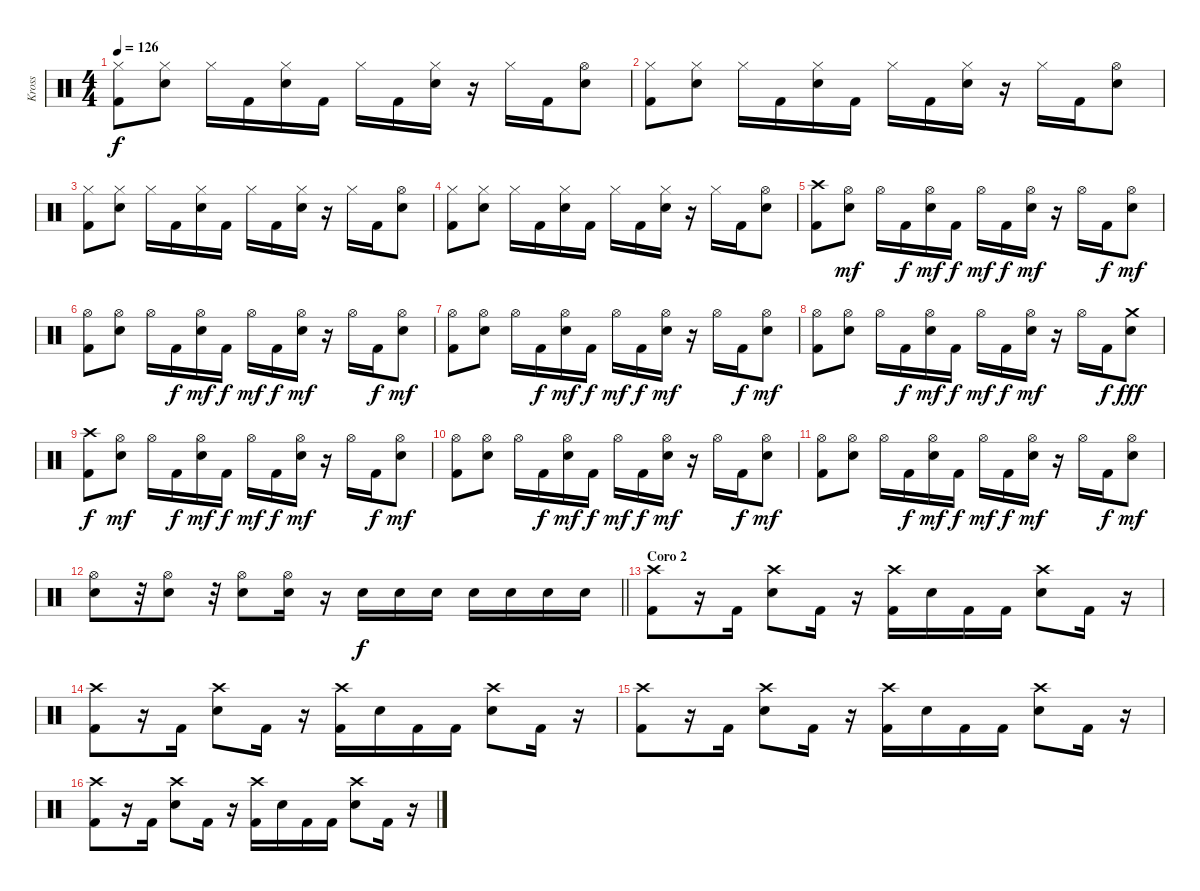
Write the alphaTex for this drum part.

\track ("Kross" "Kross") {instrument percussion}
\staff {score}
\articulation defaults
\ts (4 4)
\tempo 126
\clef neutral
\ks c
("Hi-Hat (closed)" "Kick (hit) 2").8{dy f} ("Hi-Hat (closed)" "Electric Snare (hit)").8 "Hi-Hat (closed)".16 "Kick (hit) 2".16 ("Hi-Hat (closed)" "Electric Snare (hit)").16 "Kick (hit) 2".16 "Hi-Hat (closed)".16 "Kick (hit) 2".16 ("Hi-Hat (closed)" "Electric Snare (hit)").16 r.16 "Hi-Hat (closed)".16 "Kick (hit) 2".16 ("Hi-Hat (open)" "Electric Snare (hit)").8 |
("Hi-Hat (closed)" "Kick (hit) 2").8 ("Hi-Hat (closed)" "Electric Snare (hit)").8 "Hi-Hat (closed)".16 "Kick (hit) 2".16 ("Hi-Hat (closed)" "Electric Snare (hit)").16 "Kick (hit) 2".16 "Hi-Hat (closed)".16 "Kick (hit) 2".16 ("Hi-Hat (closed)" "Electric Snare (hit)").16 r.16 "Hi-Hat (closed)".16 "Kick (hit) 2".16 ("Hi-Hat (open)" "Electric Snare (hit)").8 |
("Hi-Hat (closed)" "Kick (hit) 2").8 ("Hi-Hat (closed)" "Electric Snare (hit)").8 "Hi-Hat (closed)".16 "Kick (hit) 2".16 ("Hi-Hat (closed)" "Electric Snare (hit)").16 "Kick (hit) 2".16 "Hi-Hat (closed)".16 "Kick (hit) 2".16 ("Hi-Hat (closed)" "Electric Snare (hit)").16 r.16 "Hi-Hat (closed)".16 "Kick (hit) 2".16 ("Hi-Hat (open)" "Electric Snare (hit)").8 |
("Hi-Hat (closed)" "Kick (hit) 2").8 ("Hi-Hat (closed)" "Electric Snare (hit)").8 "Hi-Hat (closed)".16 "Kick (hit) 2".16 ("Hi-Hat (closed)" "Electric Snare (hit)").16 "Kick (hit) 2".16 "Hi-Hat (closed)".16 "Kick (hit) 2".16 ("Hi-Hat (closed)" "Electric Snare (hit)").16 r.16 "Hi-Hat (closed)".16 "Kick (hit) 2".16 ("Hi-Hat (open)" "Electric Snare (hit)").8 |
("Crash high (hit)" "Kick (hit) 2").8 ("Hi-Hat (open)" "Electric Snare (hit)").8{dy mf} "Hi-Hat (open)".16 "Kick (hit) 2".16{dy f} ("Hi-Hat (open)" "Electric Snare (hit)").16{dy mf} "Kick (hit) 2".16{dy f} "Hi-Hat (open)".16{dy mf} "Kick (hit) 2".16{dy f} ("Hi-Hat (open)" "Electric Snare (hit)").16{dy mf} r.16 "Hi-Hat (open)".16 "Kick (hit) 2".16{dy f} ("Hi-Hat (open)" "Electric Snare (hit)").8{dy mf} |
("Hi-Hat (open)" "Kick (hit) 2").8 ("Hi-Hat (open)" "Electric Snare (hit)").8 "Hi-Hat (open)".16 "Kick (hit) 2".16{dy f} ("Hi-Hat (open)" "Electric Snare (hit)").16{dy mf} "Kick (hit) 2".16{dy f} "Hi-Hat (open)".16{dy mf} "Kick (hit) 2".16{dy f} ("Hi-Hat (open)" "Electric Snare (hit)").16{dy mf} r.16 "Hi-Hat (open)".16 "Kick (hit) 2".16{dy f} ("Hi-Hat (open)" "Electric Snare (hit)").8{dy mf} |
("Hi-Hat (open)" "Kick (hit) 2").8 ("Hi-Hat (open)" "Electric Snare (hit)").8 "Hi-Hat (open)".16 "Kick (hit) 2".16{dy f} ("Hi-Hat (open)" "Electric Snare (hit)").16{dy mf} "Kick (hit) 2".16{dy f} "Hi-Hat (open)".16{dy mf} "Kick (hit) 2".16{dy f} ("Hi-Hat (open)" "Electric Snare (hit)").16{dy mf} r.16 "Hi-Hat (open)".16 "Kick (hit) 2".16{dy f} ("Hi-Hat (open)" "Electric Snare (hit)").8{dy mf} |
("Hi-Hat (open)" "Kick (hit) 2").8 ("Hi-Hat (open)" "Electric Snare (hit)").8 "Hi-Hat (open)".16 "Kick (hit) 2".16{dy f} ("Hi-Hat (open)" "Electric Snare (hit)").16{dy mf} "Kick (hit) 2".16{dy f} "Hi-Hat (open)".16{dy mf} "Kick (hit) 2".16{dy f} ("Hi-Hat (open)" "Electric Snare (hit)").16{dy mf} r.16 "Hi-Hat (open)".16 "Kick (hit) 2".16{dy f} ("Crash medium (hit)" "Electric Snare (hit)").8{dy fff} |
("Crash high (hit)" "Kick (hit) 2").8{dy f} ("Hi-Hat (open)" "Electric Snare (hit)").8{dy mf} "Hi-Hat (open)".16 "Kick (hit) 2".16{dy f} ("Hi-Hat (open)" "Electric Snare (hit)").16{dy mf} "Kick (hit) 2".16{dy f} "Hi-Hat (open)".16{dy mf} "Kick (hit) 2".16{dy f} ("Hi-Hat (open)" "Electric Snare (hit)").16{dy mf} r.16 "Hi-Hat (open)".16 "Kick (hit) 2".16{dy f} ("Hi-Hat (open)" "Electric Snare (hit)").8{dy mf} |
("Hi-Hat (open)" "Kick (hit) 2").8 ("Hi-Hat (open)" "Electric Snare (hit)").8 "Hi-Hat (open)".16 "Kick (hit) 2".16{dy f} ("Hi-Hat (open)" "Electric Snare (hit)").16{dy mf} "Kick (hit) 2".16{dy f} "Hi-Hat (open)".16{dy mf} "Kick (hit) 2".16{dy f} ("Hi-Hat (open)" "Electric Snare (hit)").16{dy mf} r.16 "Hi-Hat (open)".16 "Kick (hit) 2".16{dy f} ("Hi-Hat (open)" "Electric Snare (hit)").8{dy mf} |
("Hi-Hat (open)" "Kick (hit) 2").8 ("Hi-Hat (open)" "Electric Snare (hit)").8 "Hi-Hat (open)".16 "Kick (hit) 2".16{dy f} ("Hi-Hat (open)" "Electric Snare (hit)").16{dy mf} "Kick (hit) 2".16{dy f} "Hi-Hat (open)".16{dy mf} "Kick (hit) 2".16{dy f} ("Hi-Hat (open)" "Electric Snare (hit)").16{dy mf} r.16 "Hi-Hat (open)".16 "Kick (hit) 2".16{dy f} ("Hi-Hat (open)" "Electric Snare (hit)").8{dy mf} |
\barLineRight lightlight
("Hi-Hat (open)" "Electric Snare (hit)").8 r.32 ("Hi-Hat (open)" "Electric Snare (hit)").8 r.32 ("Hi-Hat (open)" "Electric Snare (hit)").8 ("Hi-Hat (open)" "Electric Snare (hit)").16 r.16 "Electric Snare (hit)".16{dy f} "Electric Snare (hit)".16 "Electric Snare (hit)".16 "Electric Snare (hit)".16 "Electric Snare (hit)".16 "Electric Snare (hit)".16 "Electric Snare (hit)".16 |
\section ("" "Coro 2")
("Crash high (hit)" "Kick (hit) 2").8 r.16 "Kick (hit) 2".16 ("Crash high (hit)" "Electric Snare (hit)").8 "Kick (hit) 2".16 r.16 ("Crash high (hit)" "Kick (hit) 2").16 "Electric Snare (hit)".16 "Kick (hit) 2".16 "Kick (hit) 2".16 ("Crash high (hit)" "Electric Snare (hit)").8 "Kick (hit) 2".16 r.16 |
("Crash high (hit)" "Kick (hit) 2").8 r.16 "Kick (hit) 2".16 ("Crash high (hit)" "Electric Snare (hit)").8 "Kick (hit) 2".16 r.16 ("Crash high (hit)" "Kick (hit) 2").16 "Electric Snare (hit)".16 "Kick (hit) 2".16 "Kick (hit) 2".16 ("Crash high (hit)" "Electric Snare (hit)").8 "Kick (hit) 2".16 r.16 |
("Crash high (hit)" "Kick (hit) 2").8 r.16 "Kick (hit) 2".16 ("Crash high (hit)" "Electric Snare (hit)").8 "Kick (hit) 2".16 r.16 ("Crash high (hit)" "Kick (hit) 2").16 "Electric Snare (hit)".16 "Kick (hit) 2".16 "Kick (hit) 2".16 ("Crash high (hit)" "Electric Snare (hit)").8 "Kick (hit) 2".16 r.16 |
("Crash high (hit)" "Kick (hit) 2").8 r.16 "Kick (hit) 2".16 ("Crash high (hit)" "Electric Snare (hit)").8 "Kick (hit) 2".16 r.16 ("Crash high (hit)" "Kick (hit) 2").16 "Electric Snare (hit)".16 "Kick (hit) 2".16 "Kick (hit) 2".16 ("Crash high (hit)" "Electric Snare (hit)").8 "Kick (hit) 2".16 r.16
